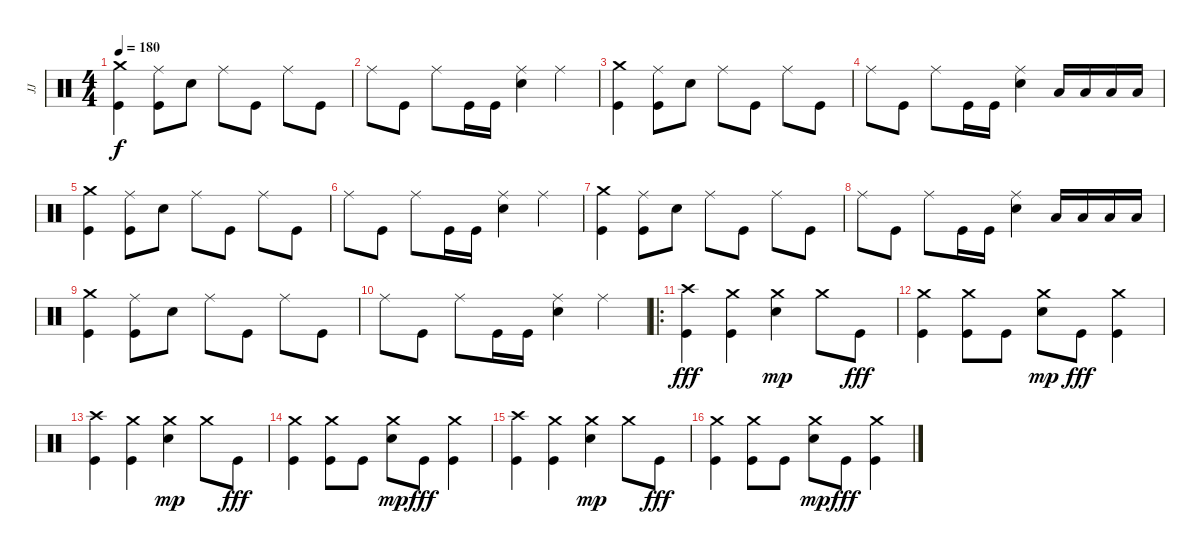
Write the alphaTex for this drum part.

\track ("JJ" "JJ") {mute instrument percussion}
\staff {score}
\articulation defaults
\ts (4 4)
\tempo 180
\clef neutral
\ks c
("Crash medium (hit)" "Kick (hit)").4{dy f} ("Ride (middle)" "Kick (hit)").8 "Snare (hit) 2".8 "Ride (middle)".8 "Kick (hit)".8 "Ride (middle)".8 "Kick (hit)".8 |
"Ride (middle)".8 "Kick (hit)".8 "Ride (middle)".8 "Kick (hit)".16 "Kick (hit)".16 ("Ride (middle)" "Snare (hit) 2").4 "Ride (middle)".4 |
("Crash medium (hit)" "Kick (hit)").4 ("Ride (middle)" "Kick (hit)").8 "Snare (hit) 2".8 "Ride (middle)".8 "Kick (hit)".8 "Ride (middle)".8 "Kick (hit)".8 |
"Ride (middle)".8 "Kick (hit)".8 "Ride (middle)".8 "Kick (hit)".16 "Kick (hit)".16 ("Ride (middle)" "Snare (hit) 2").4 "Low Floor Tom (hit)".16 "Low Floor Tom (hit)".16 "Low Floor Tom (hit)".16 "Low Floor Tom (hit)".16 |
("Crash medium (hit)" "Kick (hit)").4 ("Ride (middle)" "Kick (hit)").8 "Snare (hit) 2".8 "Ride (middle)".8 "Kick (hit)".8 "Ride (middle)".8 "Kick (hit)".8 |
"Ride (middle)".8 "Kick (hit)".8 "Ride (middle)".8 "Kick (hit)".16 "Kick (hit)".16 ("Ride (middle)" "Snare (hit) 2").4 "Ride (middle)".4 |
("Crash medium (hit)" "Kick (hit)").4 ("Ride (middle)" "Kick (hit)").8 "Snare (hit) 2".8 "Ride (middle)".8 "Kick (hit)".8 "Ride (middle)".8 "Kick (hit)".8 |
"Ride (middle)".8 "Kick (hit)".8 "Ride (middle)".8 "Kick (hit)".16 "Kick (hit)".16 ("Ride (middle)" "Snare (hit) 2").4 "Low Floor Tom (hit)".16 "Low Floor Tom (hit)".16 "Low Floor Tom (hit)".16 "Low Floor Tom (hit)".16 |
("Crash medium (hit)" "Kick (hit)").4 ("Ride (middle)" "Kick (hit)").8 "Snare (hit) 2".8 "Ride (middle)".8 "Kick (hit)".8 "Ride (middle)".8 "Kick (hit)".8 |
"Ride (middle)".8 "Kick (hit)".8 "Ride (middle)".8 "Kick (hit)".16 "Kick (hit)".16 ("Ride (middle)" "Snare (hit) 2").4 "Ride (middle)".4 |
\ro
("Crash high (hit)" "Kick (hit)").4{dy fff} ("Crash medium (hit)" "Kick (hit)").4 ("Crash medium (hit)" "Snare (hit) 2").4{dy mp} "Crash medium (hit)".8 "Kick (hit)".8{dy fff} |
("Crash medium (hit)" "Kick (hit)").4 ("Crash medium (hit)" "Kick (hit)").8 "Kick (hit)".8 ("Crash medium (hit)" "Snare (hit) 2").8{dy mp} "Kick (hit)".8{dy fff} ("Crash medium (hit)" "Kick (hit)").4 |
("Crash high (hit)" "Kick (hit)").4 ("Crash medium (hit)" "Kick (hit)").4 ("Crash medium (hit)" "Snare (hit) 2").4{dy mp} "Crash medium (hit)".8 "Kick (hit)".8{dy fff} |
("Crash medium (hit)" "Kick (hit)").4 ("Crash medium (hit)" "Kick (hit)").8 "Kick (hit)".8 ("Crash medium (hit)" "Snare (hit) 2").8{dy mp} "Kick (hit)".8{dy fff} ("Crash medium (hit)" "Kick (hit)").4 |
("Crash high (hit)" "Kick (hit)").4 ("Crash medium (hit)" "Kick (hit)").4 ("Crash medium (hit)" "Snare (hit) 2").4{dy mp} "Crash medium (hit)".8 "Kick (hit)".8{dy fff} |
("Crash medium (hit)" "Kick (hit)").4 ("Crash medium (hit)" "Kick (hit)").8 "Kick (hit)".8 ("Crash medium (hit)" "Snare (hit) 2").8{dy mp} "Kick (hit)".8{dy fff} ("Crash medium (hit)" "Kick (hit)").4
